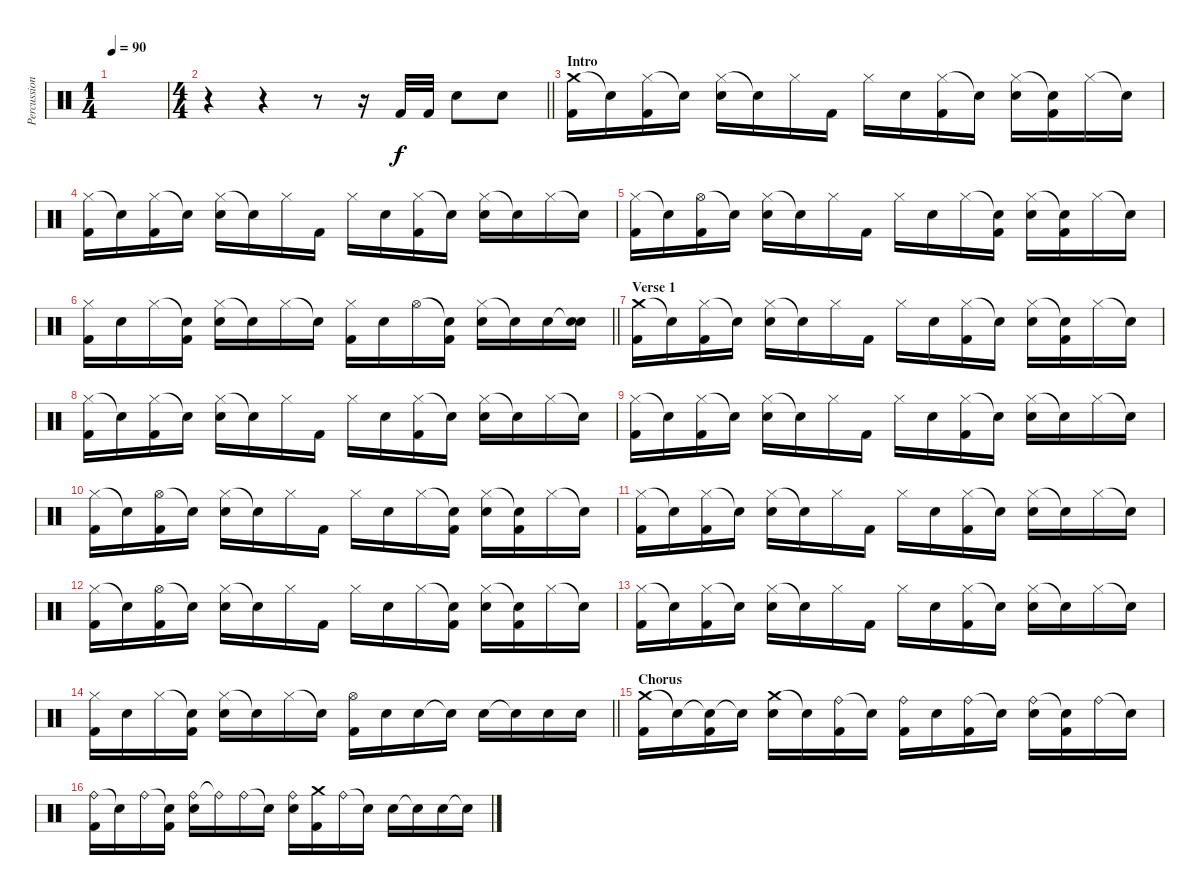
\track ("Percussion" "Percussion") {instrument percussion}
\staff {score}
\articulation defaults
\ts (1 4)
\tempo 90
\clef neutral
\ks c
|
\ts (4 4)
\barLineRight lightlight
r.4 r.4 r.8 r.16 "Kick (hit) 2".32 "Kick (hit) 2".32 "Snare (hit) 2".8 "Snare (hit) 2".8 |
\section ("" "Intro")
("Crash medium (hit)" "Kick (hit) 2").16 "Snare (hit)"{t}.16 ("Hi-Hat (closed)" "Kick (hit) 2").16 "Snare (hit)"{t}.16 ("Hi-Hat (closed)" "Snare (hit) 2").16 "Snare (hit)"{t}.16 "Hi-Hat (closed)".16 "Kick (hit) 2".16 "Hi-Hat (closed)".16 "Snare (hit) 2".16 ("Hi-Hat (closed)" "Kick (hit) 2").16 "Snare (hit)"{t}.16 ("Hi-Hat (closed)" "Snare (hit) 2").16 ("Snare (hit)"{t} "Kick (hit) 2").16 "Hi-Hat (closed)".16 "Snare (hit)"{t}.16 |
("Hi-Hat (closed)" "Kick (hit) 2").16 "Snare (hit)"{t}.16 ("Hi-Hat (closed)" "Kick (hit) 2").16 "Snare (hit)"{t}.16 ("Hi-Hat (closed)" "Snare (hit) 2").16 "Snare (hit)"{t}.16 "Hi-Hat (closed)".16 "Kick (hit) 2".16 "Hi-Hat (closed)".16 "Snare (hit) 2".16 ("Hi-Hat (closed)" "Kick (hit) 2").16 "Snare (hit)"{t}.16 ("Hi-Hat (closed)" "Snare (hit) 2").16 "Snare (hit)"{t}.16 "Hi-Hat (closed)".16 "Snare (hit)"{t}.16 |
("Hi-Hat (closed)" "Kick (hit) 2").16 "Snare (hit)"{t}.16 ("Hi-Hat (open)" "Kick (hit) 2").16 "Snare (hit)"{t}.16 ("Hi-Hat (closed)" "Snare (hit) 2").16 "Snare (hit)"{t}.16 "Hi-Hat (closed)".16 "Kick (hit) 2".16 "Hi-Hat (closed)".16 "Snare (hit) 2".16 "Hi-Hat (closed)".16 ("Snare (hit)"{t} "Kick (hit) 2").16 ("Hi-Hat (closed)" "Snare (hit) 2").16 ("Snare (hit)"{t} "Kick (hit) 2").16 "Hi-Hat (closed)".16 "Snare (hit)"{t}.16 |
\barLineRight lightlight
("Hi-Hat (closed)" "Kick (hit) 2").16 "Snare (hit) 2".16 "Hi-Hat (closed)".16 ("Snare (hit)"{t} "Kick (hit) 2").16 ("Hi-Hat (closed)" "Snare (hit) 2").16 "Snare (hit)"{t}.16 "Hi-Hat (closed)".16 "Snare (hit)"{t}.16 ("Hi-Hat (closed)" "Kick (hit) 2").16 "Snare (hit) 2".16 "Hi-Hat (open)".16 ("Snare (hit)"{t} "Kick (hit) 2").16 ("Hi-Hat (closed)" "Snare (hit) 2").16 "Snare (hit)"{t}.16 "Snare (hit) 2".16 ("Snare (hit)"{t} "Snare (hit) 2").16 |
\section ("" "Verse 1")
("Crash medium (hit)" "Kick (hit) 2").16 "Snare (hit)"{t}.16 ("Hi-Hat (closed)" "Kick (hit) 2").16 "Snare (hit)"{t}.16 ("Hi-Hat (closed)" "Snare (hit) 2").16 "Snare (hit)"{t}.16 "Hi-Hat (closed)".16 "Kick (hit) 2".16 "Hi-Hat (closed)".16 "Snare (hit) 2".16 ("Hi-Hat (closed)" "Kick (hit) 2").16 "Snare (hit)"{t}.16 ("Hi-Hat (closed)" "Snare (hit) 2").16 ("Snare (hit)"{t} "Kick (hit) 2").16 "Hi-Hat (closed)".16 "Snare (hit)"{t}.16 |
("Hi-Hat (closed)" "Kick (hit) 2").16 "Snare (hit)"{t}.16 ("Hi-Hat (closed)" "Kick (hit) 2").16 "Snare (hit)"{t}.16 ("Hi-Hat (closed)" "Snare (hit) 2").16 "Snare (hit)"{t}.16 "Hi-Hat (closed)".16 "Kick (hit) 2".16 "Hi-Hat (closed)".16 "Snare (hit) 2".16 ("Hi-Hat (closed)" "Kick (hit) 2").16 "Snare (hit)"{t}.16 ("Hi-Hat (closed)" "Snare (hit) 2").16 "Snare (hit)"{t}.16 "Hi-Hat (closed)".16 "Snare (hit)"{t}.16 |
("Hi-Hat (closed)" "Kick (hit) 2").16 "Snare (hit)"{t}.16 ("Hi-Hat (closed)" "Kick (hit) 2").16 "Snare (hit)"{t}.16 ("Hi-Hat (closed)" "Snare (hit) 2").16 "Snare (hit)"{t}.16 "Hi-Hat (closed)".16 "Kick (hit) 2".16 "Hi-Hat (closed)".16 "Snare (hit) 2".16 ("Hi-Hat (closed)" "Kick (hit) 2").16 "Snare (hit)"{t}.16 ("Hi-Hat (closed)" "Snare (hit) 2").16 "Snare (hit)"{t}.16 "Hi-Hat (closed)".16 "Snare (hit)"{t}.16 |
("Hi-Hat (closed)" "Kick (hit) 2").16 "Snare (hit)"{t}.16 ("Hi-Hat (open)" "Kick (hit) 2").16 "Snare (hit)"{t}.16 ("Hi-Hat (closed)" "Snare (hit) 2").16 "Snare (hit)"{t}.16 "Hi-Hat (closed)".16 "Kick (hit) 2".16 "Hi-Hat (closed)".16 "Snare (hit) 2".16 "Hi-Hat (closed)".16 ("Snare (hit)"{t} "Kick (hit) 2").16 ("Hi-Hat (closed)" "Snare (hit) 2").16 ("Snare (hit)"{t} "Kick (hit) 2").16 "Hi-Hat (closed)".16 "Snare (hit)"{t}.16 |
("Hi-Hat (closed)" "Kick (hit) 2").16 "Snare (hit)"{t}.16 ("Hi-Hat (closed)" "Kick (hit) 2").16 "Snare (hit)"{t}.16 ("Hi-Hat (closed)" "Snare (hit) 2").16 "Snare (hit)"{t}.16 "Hi-Hat (closed)".16 "Kick (hit) 2".16 "Hi-Hat (closed)".16 "Snare (hit) 2".16 ("Hi-Hat (closed)" "Kick (hit) 2").16 "Snare (hit)"{t}.16 ("Hi-Hat (closed)" "Snare (hit) 2").16 "Snare (hit)"{t}.16 "Hi-Hat (closed)".16 "Snare (hit)"{t}.16 |
("Hi-Hat (closed)" "Kick (hit) 2").16 "Snare (hit)"{t}.16 ("Hi-Hat (open)" "Kick (hit) 2").16 "Snare (hit)"{t}.16 ("Hi-Hat (closed)" "Snare (hit) 2").16 "Snare (hit)"{t}.16 "Hi-Hat (closed)".16 "Kick (hit) 2".16 "Hi-Hat (closed)".16 "Snare (hit) 2".16 "Hi-Hat (closed)".16 ("Snare (hit)"{t} "Kick (hit) 2").16 ("Hi-Hat (closed)" "Snare (hit) 2").16 ("Snare (hit)"{t} "Kick (hit) 2").16 "Hi-Hat (closed)".16 "Snare (hit)"{t}.16 |
("Hi-Hat (closed)" "Kick (hit) 2").16 "Snare (hit)"{t}.16 ("Hi-Hat (closed)" "Kick (hit) 2").16 "Snare (hit)"{t}.16 ("Hi-Hat (closed)" "Snare (hit) 2").16 "Snare (hit)"{t}.16 "Hi-Hat (closed)".16 "Kick (hit) 2".16 "Hi-Hat (closed)".16 "Snare (hit) 2".16 ("Hi-Hat (closed)" "Kick (hit) 2").16 "Snare (hit)"{t}.16 ("Hi-Hat (closed)" "Snare (hit) 2").16 "Snare (hit)"{t}.16 "Hi-Hat (closed)".16 "Snare (hit)"{t}.16 |
\barLineRight lightlight
("Hi-Hat (closed)" "Kick (hit) 2").16 "Snare (hit) 2".16 "Hi-Hat (closed)".16 ("Snare (hit)"{t} "Kick (hit) 2").16 ("Hi-Hat (closed)" "Snare (hit) 2").16 "Snare (hit)"{t}.16 "Hi-Hat (closed)".16 "Snare (hit)"{t}.16 ("Hi-Hat (open)" "Kick (hit) 2").16 "Snare (hit) 2".16 "Snare (hit) 2".16 "Snare (hit)"{t}.16 "Snare (hit) 2".16 "Snare (hit) 2"{t}.16 "Snare (hit) 2".16 "Snare (hit) 2".16 |
\section ("" "Chorus")
("Crash medium (hit)" "Kick (hit) 2").16 "Snare (hit)"{t}.16 ("Snare (hit)"{t} "Kick (hit) 2").16 "Snare (hit)"{t}.16 ("Crash medium (hit)" "Snare (hit) 2").16 "Snare (hit)"{t}.16 ("Ride (bell)" "Kick (hit) 2").16 "Snare (hit)"{t}.16 ("Ride (bell)" "Kick (hit) 2").16 "Snare (hit) 2".16 ("Ride (bell)" "Kick (hit) 2").16 "Snare (hit)"{t}.16 ("Ride (bell)" "Snare (hit) 2").16 ("Snare (hit)"{t} "Kick (hit) 2").16 "Ride (bell)".16 "Snare (hit)"{t}.16 |
("Ride (bell)" "Kick (hit) 2").16 "Snare (hit)"{t}.16 "Ride (bell)".16 ("Snare (hit)"{t} "Kick (hit) 2").16 ("Ride (bell)" "Snare (hit) 2").16 "Ride (bell)"{t}.16 "Ride (bell)".16 "Snare (hit)"{t}.16 ("Ride (bell)" "Snare (hit) 2").16 ("Crash medium (hit)" "Kick (hit) 2").16 "Ride (bell)".16 "Snare (hit)"{t}.16 "Snare (hit) 2".16 "Snare (hit)"{t}.16 "Snare (hit) 2".16 "Snare (hit)"{t}.16
